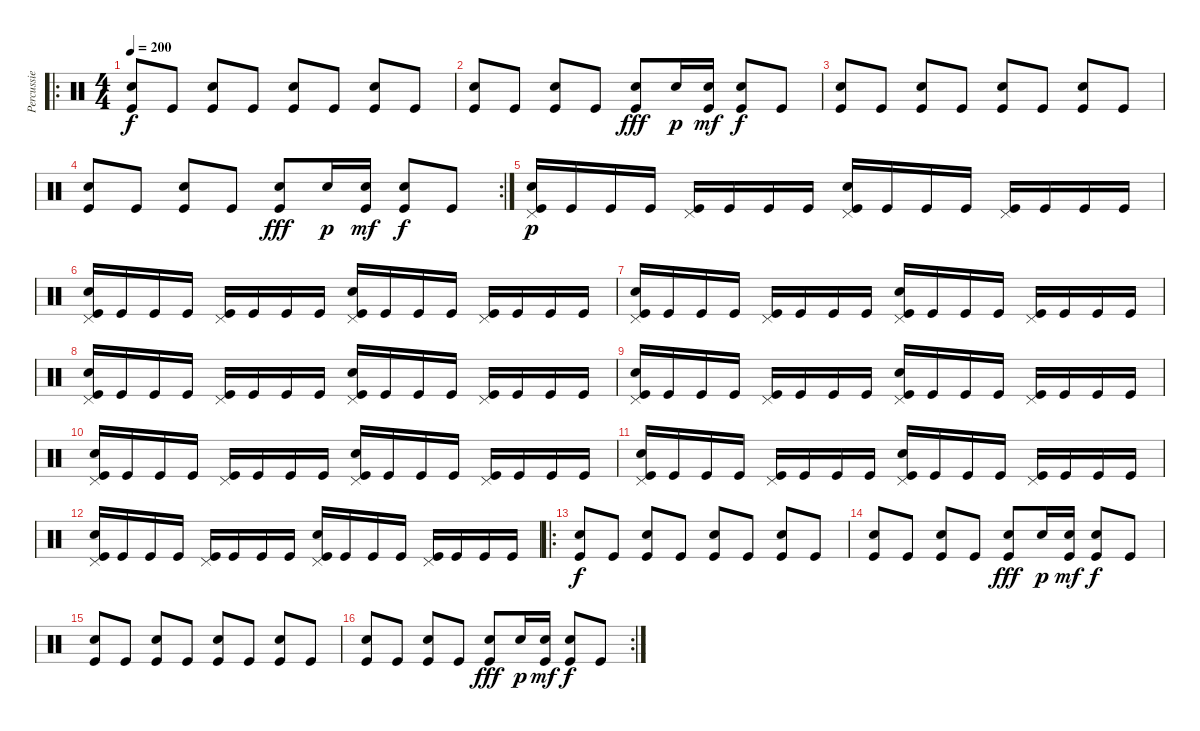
\track ("Percussie" "Percussie") {instrument percussion}
\staff {score}
\articulation defaults
\ro
\ts (4 4)
\tempo 200
\clef neutral
\ks c
("Electric Snare (hit)" "Kick (hit)").8{dy f} "Kick (hit)".8 ("Electric Snare (hit)" "Kick (hit)").8 "Kick (hit)".8 ("Electric Snare (hit)" "Kick (hit)").8 "Kick (hit)".8 ("Electric Snare (hit)" "Kick (hit)").8 "Kick (hit)".8 |
("Electric Snare (hit)" "Kick (hit)").8 "Kick (hit)".8 ("Electric Snare (hit)" "Kick (hit)").8 "Kick (hit)".8 ("Snare (hit) 2" "Kick (hit)").8{dy fff} "Snare (hit) 2".16{dy p} ("Snare (hit) 2" "Kick (hit)").16{dy mf} ("Electric Snare (hit)" "Kick (hit)").8{dy f} "Kick (hit)".8 |
("Electric Snare (hit)" "Kick (hit)").8 "Kick (hit)".8 ("Electric Snare (hit)" "Kick (hit)").8 "Kick (hit)".8 ("Electric Snare (hit)" "Kick (hit)").8 "Kick (hit)".8 ("Electric Snare (hit)" "Kick (hit)").8 "Kick (hit)".8 |
\rc 2
("Electric Snare (hit)" "Kick (hit)").8 "Kick (hit)".8 ("Electric Snare (hit)" "Kick (hit)").8 "Kick (hit)".8 ("Snare (hit) 2" "Kick (hit)").8{dy fff} "Snare (hit) 2".16{dy p} ("Snare (hit) 2" "Kick (hit)").16{dy mf} ("Electric Snare (hit)" "Kick (hit)").8{dy f} "Kick (hit)".8 |
("Snare (hit) 2" "Pedal Hi-Hat (hit)" "Kick (hit)").16{dy p} "Kick (hit)".16 "Kick (hit)".16 "Kick (hit)".16 ("Pedal Hi-Hat (hit)" "Kick (hit)").16 "Kick (hit)".16 "Kick (hit)".16 "Kick (hit)".16 ("Electric Snare (hit)" "Pedal Hi-Hat (hit)" "Kick (hit)").16 "Kick (hit)".16 "Kick (hit)".16 "Kick (hit)".16 ("Pedal Hi-Hat (hit)" "Kick (hit)").16 "Kick (hit)".16 "Kick (hit)".16 "Kick (hit)".16 |
("Snare (hit) 2" "Pedal Hi-Hat (hit)" "Kick (hit)").16 "Kick (hit)".16 "Kick (hit)".16 "Kick (hit)".16 ("Pedal Hi-Hat (hit)" "Kick (hit)").16 "Kick (hit)".16 "Kick (hit)".16 "Kick (hit)".16 ("Electric Snare (hit)" "Pedal Hi-Hat (hit)" "Kick (hit)").16 "Kick (hit)".16 "Kick (hit)".16 "Kick (hit)".16 ("Pedal Hi-Hat (hit)" "Kick (hit)").16 "Kick (hit)".16 "Kick (hit)".16 "Kick (hit)".16 |
("Snare (hit) 2" "Pedal Hi-Hat (hit)" "Kick (hit)").16 "Kick (hit)".16 "Kick (hit)".16 "Kick (hit)".16 ("Pedal Hi-Hat (hit)" "Kick (hit)").16 "Kick (hit)".16 "Kick (hit)".16 "Kick (hit)".16 ("Electric Snare (hit)" "Pedal Hi-Hat (hit)" "Kick (hit)").16 "Kick (hit)".16 "Kick (hit)".16 "Kick (hit)".16 ("Pedal Hi-Hat (hit)" "Kick (hit)").16 "Kick (hit)".16 "Kick (hit)".16 "Kick (hit)".16 |
("Snare (hit) 2" "Pedal Hi-Hat (hit)" "Kick (hit)").16 "Kick (hit)".16 "Kick (hit)".16 "Kick (hit)".16 ("Pedal Hi-Hat (hit)" "Kick (hit)").16 "Kick (hit)".16 "Kick (hit)".16 "Kick (hit)".16 ("Electric Snare (hit)" "Pedal Hi-Hat (hit)" "Kick (hit)").16 "Kick (hit)".16 "Kick (hit)".16 "Kick (hit)".16 ("Pedal Hi-Hat (hit)" "Kick (hit)").16 "Kick (hit)".16 "Kick (hit)".16 "Kick (hit)".16 |
("Snare (hit) 2" "Pedal Hi-Hat (hit)" "Kick (hit)").16 "Kick (hit)".16 "Kick (hit)".16 "Kick (hit)".16 ("Pedal Hi-Hat (hit)" "Kick (hit)").16 "Kick (hit)".16 "Kick (hit)".16 "Kick (hit)".16 ("Electric Snare (hit)" "Pedal Hi-Hat (hit)" "Kick (hit)").16 "Kick (hit)".16 "Kick (hit)".16 "Kick (hit)".16 ("Pedal Hi-Hat (hit)" "Kick (hit)").16 "Kick (hit)".16 "Kick (hit)".16 "Kick (hit)".16 |
("Snare (hit) 2" "Pedal Hi-Hat (hit)" "Kick (hit)").16 "Kick (hit)".16 "Kick (hit)".16 "Kick (hit)".16 ("Pedal Hi-Hat (hit)" "Kick (hit)").16 "Kick (hit)".16 "Kick (hit)".16 "Kick (hit)".16 ("Electric Snare (hit)" "Pedal Hi-Hat (hit)" "Kick (hit)").16 "Kick (hit)".16 "Kick (hit)".16 "Kick (hit)".16 ("Pedal Hi-Hat (hit)" "Kick (hit)").16 "Kick (hit)".16 "Kick (hit)".16 "Kick (hit)".16 |
("Snare (hit) 2" "Pedal Hi-Hat (hit)" "Kick (hit)").16 "Kick (hit)".16 "Kick (hit)".16 "Kick (hit)".16 ("Pedal Hi-Hat (hit)" "Kick (hit)").16 "Kick (hit)".16 "Kick (hit)".16 "Kick (hit)".16 ("Electric Snare (hit)" "Pedal Hi-Hat (hit)" "Kick (hit)").16 "Kick (hit)".16 "Kick (hit)".16 "Kick (hit)".16 ("Pedal Hi-Hat (hit)" "Kick (hit)").16 "Kick (hit)".16 "Kick (hit)".16 "Kick (hit)".16 |
("Snare (hit) 2" "Pedal Hi-Hat (hit)" "Kick (hit)").16 "Kick (hit)".16 "Kick (hit)".16 "Kick (hit)".16 ("Pedal Hi-Hat (hit)" "Kick (hit)").16 "Kick (hit)".16 "Kick (hit)".16 "Kick (hit)".16 ("Electric Snare (hit)" "Pedal Hi-Hat (hit)" "Kick (hit)").16 "Kick (hit)".16 "Kick (hit)".16 "Kick (hit)".16 ("Pedal Hi-Hat (hit)" "Kick (hit)").16 "Kick (hit)".16 "Kick (hit)".16 "Kick (hit)".16 |
\ro
("Electric Snare (hit)" "Kick (hit)").8{dy f} "Kick (hit)".8 ("Electric Snare (hit)" "Kick (hit)").8 "Kick (hit)".8 ("Electric Snare (hit)" "Kick (hit)").8 "Kick (hit)".8 ("Electric Snare (hit)" "Kick (hit)").8 "Kick (hit)".8 |
("Electric Snare (hit)" "Kick (hit)").8 "Kick (hit)".8 ("Electric Snare (hit)" "Kick (hit)").8 "Kick (hit)".8 ("Snare (hit) 2" "Kick (hit)").8{dy fff} "Snare (hit) 2".16{dy p} ("Snare (hit) 2" "Kick (hit)").16{dy mf} ("Electric Snare (hit)" "Kick (hit)").8{dy f} "Kick (hit)".8 |
("Electric Snare (hit)" "Kick (hit)").8 "Kick (hit)".8 ("Electric Snare (hit)" "Kick (hit)").8 "Kick (hit)".8 ("Electric Snare (hit)" "Kick (hit)").8 "Kick (hit)".8 ("Electric Snare (hit)" "Kick (hit)").8 "Kick (hit)".8 |
\rc 2
("Electric Snare (hit)" "Kick (hit)").8 "Kick (hit)".8 ("Electric Snare (hit)" "Kick (hit)").8 "Kick (hit)".8 ("Snare (hit) 2" "Kick (hit)").8{dy fff} "Snare (hit) 2".16{dy p} ("Snare (hit) 2" "Kick (hit)").16{dy mf} ("Electric Snare (hit)" "Kick (hit)").8{dy f} "Kick (hit)".8
